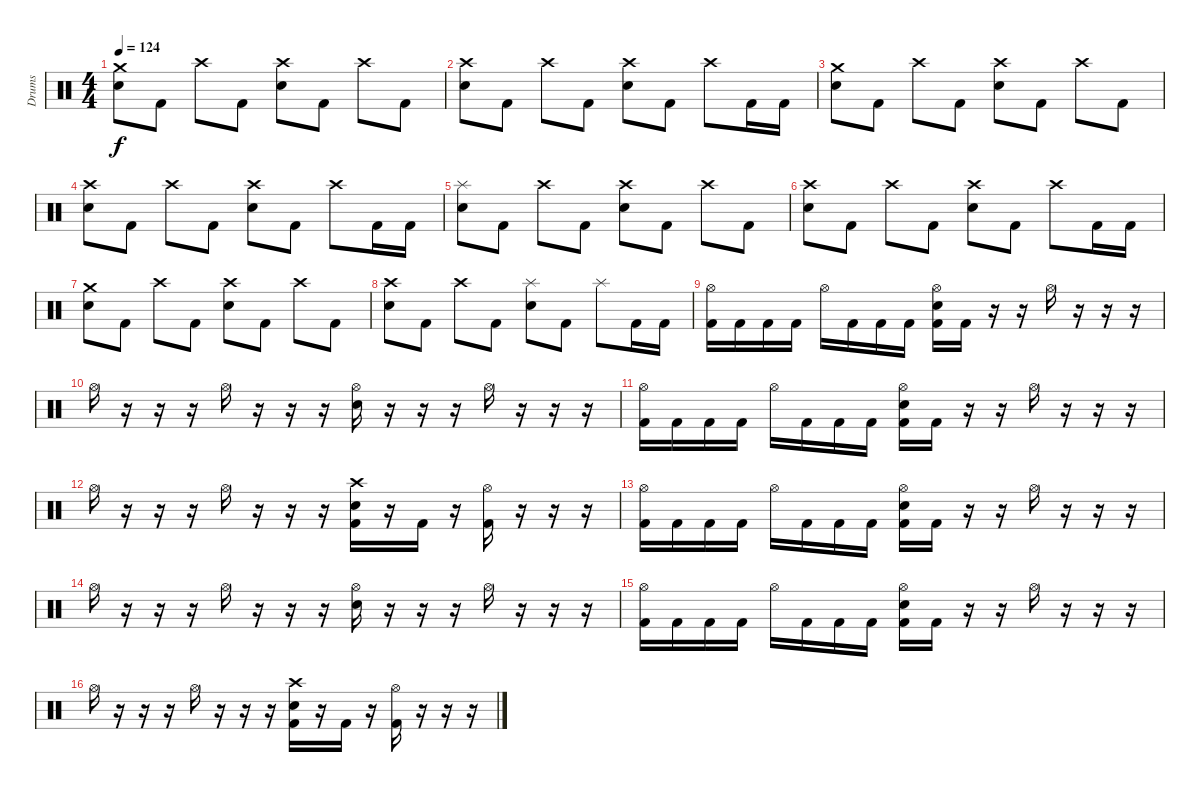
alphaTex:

\track ("Drums" "Drums") {instrument percussion}
\staff {score}
\articulation defaults
\ts (4 4)
\tempo 124
\clef neutral
\ks c
("Crash medium (hit)" "Electric Snare (hit)").8{dy f} "Kick (hit) 2".8 "Crash high (hit)".8 "Kick (hit) 2".8 ("Crash high (hit)" "Electric Snare (hit)").8 "Kick (hit) 2".8 "Crash high (hit)".8 "Kick (hit) 2".8 |
("Crash high (hit)" "Electric Snare (hit)").8 "Kick (hit) 2".8 "Crash high (hit)".8 "Kick (hit) 2".8 ("Crash high (hit)" "Electric Snare (hit)").8 "Kick (hit) 2".8 "Crash high (hit)".8 "Kick (hit) 2".16 "Kick (hit) 2".16 |
("Crash medium (hit)" "Electric Snare (hit)").8 "Kick (hit) 2".8 "Crash high (hit)".8 "Kick (hit) 2".8 ("Crash high (hit)" "Electric Snare (hit)").8 "Kick (hit) 2".8 "Crash high (hit)".8 "Kick (hit) 2".8 |
("Crash high (hit)" "Electric Snare (hit)").8 "Kick (hit) 2".8 "Crash high (hit)".8 "Kick (hit) 2".8 ("Crash high (hit)" "Electric Snare (hit)").8 "Kick (hit) 2".8 "Crash high (hit)".8 "Kick (hit) 2".16 "Kick (hit) 2".16 |
("Splash (hit)" "Electric Snare (hit)").8 "Kick (hit) 2".8 "Crash high (hit)".8 "Kick (hit) 2".8 ("Crash high (hit)" "Electric Snare (hit)").8 "Kick (hit) 2".8 "Crash high (hit)".8 "Kick (hit) 2".8 |
("Crash high (hit)" "Electric Snare (hit)").8 "Kick (hit) 2".8 "Crash high (hit)".8 "Kick (hit) 2".8 ("Crash high (hit)" "Electric Snare (hit)").8 "Kick (hit) 2".8 "Crash high (hit)".8 "Kick (hit) 2".16 "Kick (hit) 2".16 |
("Crash medium (hit)" "Electric Snare (hit)").8 "Kick (hit) 2".8 "Crash high (hit)".8 "Kick (hit) 2".8 ("Crash high (hit)" "Electric Snare (hit)").8 "Kick (hit) 2".8 "Crash high (hit)".8 "Kick (hit) 2".8 |
("Crash high (hit)" "Electric Snare (hit)").8 "Kick (hit) 2".8 "Crash high (hit)".8 "Kick (hit) 2".8 ("Splash (hit)" "Electric Snare (hit)").8 "Kick (hit) 2".8 "Splash (hit)".8 "Kick (hit) 2".16 "Kick (hit) 2".16 |
("Hi-Hat (open)" "Kick (hit) 2").16 "Kick (hit) 2".16 "Kick (hit) 2".16 "Kick (hit) 2".16 "Hi-Hat (open)".16 "Kick (hit) 2".16 "Kick (hit) 2".16 "Kick (hit) 2".16 ("Hi-Hat (open)" "Electric Snare (hit)" "Kick (hit) 2").16 "Kick (hit) 2".16 r.16 r.16 "Hi-Hat (open)".16 r.16 r.16 r.16 |
"Hi-Hat (open)".16 r.16 r.16 r.16 "Hi-Hat (open)".16 r.16 r.16 r.16 ("Hi-Hat (open)" "Electric Snare (hit)").16 r.16 r.16 r.16 "Hi-Hat (open)".16 r.16 r.16 r.16 |
("Hi-Hat (open)" "Kick (hit) 2").16 "Kick (hit) 2".16 "Kick (hit) 2".16 "Kick (hit) 2".16 "Hi-Hat (open)".16 "Kick (hit) 2".16 "Kick (hit) 2".16 "Kick (hit) 2".16 ("Hi-Hat (open)" "Electric Snare (hit)" "Kick (hit) 2").16 "Kick (hit) 2".16 r.16 r.16 "Hi-Hat (open)".16 r.16 r.16 r.16 |
"Hi-Hat (open)".16 r.16 r.16 r.16 "Hi-Hat (open)".16 r.16 r.16 r.16 ("Crash high (hit)" "Electric Snare (hit)" "Kick (hit) 2").16 r.16 "Kick (hit) 2".16 r.16 ("Hi-Hat (open)" "Kick (hit) 2").16 r.16 r.16 r.16 |
("Hi-Hat (open)" "Kick (hit) 2").16 "Kick (hit) 2".16 "Kick (hit) 2".16 "Kick (hit) 2".16 "Hi-Hat (open)".16 "Kick (hit) 2".16 "Kick (hit) 2".16 "Kick (hit) 2".16 ("Hi-Hat (open)" "Electric Snare (hit)" "Kick (hit) 2").16 "Kick (hit) 2".16 r.16 r.16 "Hi-Hat (open)".16 r.16 r.16 r.16 |
"Hi-Hat (open)".16 r.16 r.16 r.16 "Hi-Hat (open)".16 r.16 r.16 r.16 ("Hi-Hat (open)" "Electric Snare (hit)").16 r.16 r.16 r.16 "Hi-Hat (open)".16 r.16 r.16 r.16 |
("Hi-Hat (open)" "Kick (hit) 2").16 "Kick (hit) 2".16 "Kick (hit) 2".16 "Kick (hit) 2".16 "Hi-Hat (open)".16 "Kick (hit) 2".16 "Kick (hit) 2".16 "Kick (hit) 2".16 ("Hi-Hat (open)" "Electric Snare (hit)" "Kick (hit) 2").16 "Kick (hit) 2".16 r.16 r.16 "Hi-Hat (open)".16 r.16 r.16 r.16 |
"Hi-Hat (open)".16 r.16 r.16 r.16 "Hi-Hat (open)".16 r.16 r.16 r.16 ("Crash high (hit)" "Electric Snare (hit)" "Kick (hit) 2").16 r.16 "Kick (hit) 2".16 r.16 ("Hi-Hat (open)" "Kick (hit) 2").16 r.16 r.16 r.16
